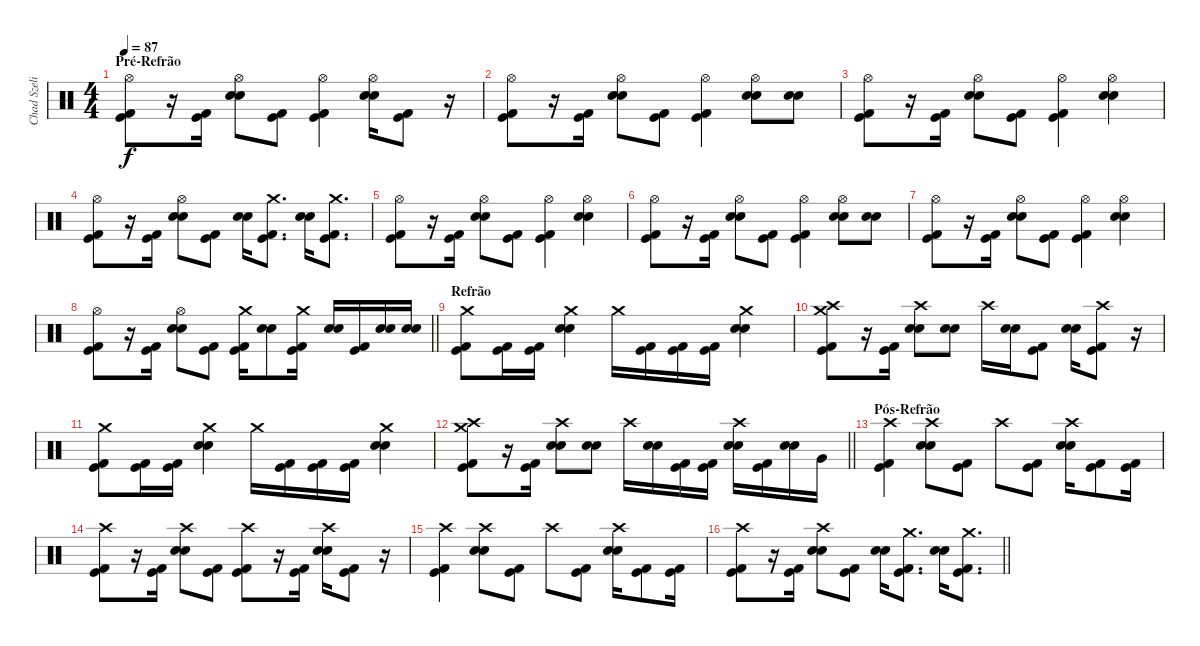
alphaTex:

\track ("Chad Szeliga" "Chad Szeli") {instrument percussion}
\staff {score}
\articulation defaults
\ts (4 4)
\section ("" "Pré-Refrão")
\tempo 87
\clef neutral
\ks c
("Kick (hit) 2" "Kick (hit)" "Hi-Hat (open)").8{dy f} r.16 ("Kick (hit) 2" "Kick (hit)").16{beam Down} ("Snare (hit) 2" "Snare (hit) 2" "Hi-Hat (open)").8 ("Kick (hit) 2" "Kick (hit)").8 ("Kick (hit) 2" "Kick (hit)" "Hi-Hat (open)").4 ("Snare (hit) 2" "Snare (hit) 2" "Hi-Hat (open)").16 ("Kick (hit) 2" "Kick (hit)").8 r.16 |
("Kick (hit) 2" "Kick (hit)" "Hi-Hat (open)").8 r.16 ("Kick (hit) 2" "Kick (hit)").16{beam Down} ("Snare (hit) 2" "Snare (hit) 2" "Hi-Hat (open)").8 ("Kick (hit) 2" "Kick (hit)").8 ("Kick (hit) 2" "Kick (hit)" "Hi-Hat (open)").4 ("Snare (hit) 2" "Snare (hit) 2" "Hi-Hat (open)").8 ("Snare (hit) 2" "Snare (hit) 2").8 |
("Kick (hit) 2" "Kick (hit)" "Hi-Hat (open)").8 r.16 ("Kick (hit) 2" "Kick (hit)").16{beam Down} ("Snare (hit) 2" "Snare (hit) 2" "Hi-Hat (open)").8 ("Kick (hit) 2" "Kick (hit)").8 ("Kick (hit) 2" "Kick (hit)" "Hi-Hat (open)").4 ("Snare (hit) 2" "Snare (hit) 2" "Hi-Hat (open)").4 |
("Kick (hit) 2" "Kick (hit)" "Hi-Hat (open)").8 r.16 ("Kick (hit) 2" "Kick (hit)").16{beam Down} ("Snare (hit) 2" "Snare (hit) 2" "Hi-Hat (open)").8 ("Kick (hit) 2" "Kick (hit)").8 ("Snare (hit) 2" "Snare (hit) 2").16 ("Crash medium (hit)" "Kick (hit) 2" "Kick (hit)").8{d} ("Snare (hit) 2" "Snare (hit) 2").16 ("Crash medium (hit)" "Kick (hit) 2" "Kick (hit)").8{d} |
("Kick (hit) 2" "Kick (hit)" "Hi-Hat (open)").8 r.16 ("Kick (hit) 2" "Kick (hit)").16{beam Down} ("Snare (hit) 2" "Snare (hit) 2" "Hi-Hat (open)").8 ("Kick (hit) 2" "Kick (hit)").8 ("Kick (hit) 2" "Kick (hit)" "Hi-Hat (open)").4 ("Snare (hit) 2" "Snare (hit) 2" "Hi-Hat (open)").4 |
("Kick (hit) 2" "Kick (hit)" "Hi-Hat (open)").8 r.16 ("Kick (hit) 2" "Kick (hit)").16{beam Down} ("Snare (hit) 2" "Snare (hit) 2" "Hi-Hat (open)").8 ("Kick (hit) 2" "Kick (hit)").8 ("Kick (hit) 2" "Kick (hit)" "Hi-Hat (open)").4 ("Snare (hit) 2" "Snare (hit) 2" "Hi-Hat (open)").8 ("Snare (hit) 2" "Snare (hit) 2").8 |
("Kick (hit) 2" "Kick (hit)" "Hi-Hat (open)").8 r.16 ("Kick (hit) 2" "Kick (hit)").16{beam Down} ("Snare (hit) 2" "Snare (hit) 2" "Hi-Hat (open)").8 ("Kick (hit) 2" "Kick (hit)").8 ("Kick (hit) 2" "Kick (hit)" "Hi-Hat (open)").4 ("Snare (hit) 2" "Snare (hit) 2" "Hi-Hat (open)").4 |
\barLineRight lightlight
("Kick (hit) 2" "Kick (hit)" "Hi-Hat (open)").8 r.16 ("Kick (hit) 2" "Kick (hit)").16{beam Down} ("Snare (hit) 2" "Snare (hit) 2" "Hi-Hat (open)").8 ("Kick (hit) 2" "Kick (hit)").8 ("Crash medium (hit)" "Kick (hit) 2" "Kick (hit)").16 ("Snare (hit) 2" "Snare (hit) 2").8 ("Crash medium (hit)" "Kick (hit) 2" "Kick (hit)").16 ("Snare (hit) 2" "Snare (hit) 2").16 ("Kick (hit) 2" "Kick (hit)").16 ("Snare (hit) 2" "Snare (hit) 2").16 ("Snare (hit) 2" "Snare (hit) 2").16 |
\section ("" "Refrão")
("Crash medium (hit)" "Kick (hit) 2" "Kick (hit)").8 ("Kick (hit) 2" "Kick (hit)").16 ("Kick (hit) 2" "Kick (hit)").16 ("Crash medium (hit)" "Snare (hit) 2" "Snare (hit) 2").4 "Crash medium (hit)".16 ("Kick (hit) 2" "Kick (hit)").16 ("Kick (hit) 2" "Kick (hit)").16 ("Kick (hit) 2" "Kick (hit)").16 ("Crash medium (hit)" "Snare (hit) 2" "Snare (hit) 2").4 |
("Crash high (hit)" "Kick (hit) 2" "Kick (hit)" "Crash medium (hit)").8 r.16 ("Kick (hit) 2" "Kick (hit)").16{beam Down} ("Crash high (hit)" "Snare (hit) 2" "Snare (hit) 2").8 ("Snare (hit) 2" "Snare (hit) 2").8 "Crash high (hit)".16 ("Snare (hit) 2" "Snare (hit) 2").16 ("Kick (hit) 2" "Kick (hit)").8 ("Snare (hit) 2" "Snare (hit) 2").16 ("Crash high (hit)" "Kick (hit) 2" "Kick (hit)").8 r.16 |
("Crash medium (hit)" "Kick (hit) 2" "Kick (hit)").8 ("Kick (hit) 2" "Kick (hit)").16 ("Kick (hit) 2" "Kick (hit)").16 ("Crash medium (hit)" "Snare (hit) 2" "Snare (hit) 2").4 "Crash medium (hit)".16 ("Kick (hit) 2" "Kick (hit)").16 ("Kick (hit) 2" "Kick (hit)").16 ("Kick (hit) 2" "Kick (hit)").16 ("Crash medium (hit)" "Snare (hit) 2" "Snare (hit) 2").4 |
\barLineRight lightlight
("Crash high (hit)" "Kick (hit) 2" "Kick (hit)" "Crash medium (hit)").8 r.16 ("Kick (hit) 2" "Kick (hit)").16{beam Down} ("Crash high (hit)" "Snare (hit) 2" "Snare (hit) 2").8 ("Snare (hit) 2" "Snare (hit) 2").8 "Crash high (hit)".16 ("Snare (hit) 2" "Snare (hit) 2").16 ("Kick (hit) 2" "Kick (hit)").16 ("Kick (hit) 2" "Kick (hit)").16 ("Crash high (hit)" "Snare (hit) 2" "Snare (hit) 2").16 ("Kick (hit) 2" "Kick (hit)").16 ("Snare (hit) 2" "Snare (hit) 2").16 "Very Low Tom (hit)".16 |
\section ("" "Pós-Refrão")
("Crash high (hit)" "Kick (hit) 2" "Kick (hit)").4 ("Crash high (hit)" "Snare (hit) 2" "Snare (hit) 2").8 ("Kick (hit) 2" "Kick (hit)").8 "Crash high (hit)".8 ("Kick (hit) 2" "Kick (hit)").8 ("Crash high (hit)" "Snare (hit) 2" "Snare (hit) 2").16 ("Kick (hit) 2" "Kick (hit)").8 ("Kick (hit) 2" "Kick (hit)").16 |
("Crash high (hit)" "Kick (hit) 2" "Kick (hit)").8 r.16 ("Kick (hit) 2" "Kick (hit)").16{beam Down} ("Crash high (hit)" "Snare (hit) 2" "Snare (hit) 2").8 ("Kick (hit) 2" "Kick (hit)").8 ("Crash high (hit)" "Kick (hit) 2" "Kick (hit)").8 r.16 ("Kick (hit) 2" "Kick (hit)").16{beam Down} ("Crash high (hit)" "Snare (hit) 2" "Snare (hit) 2").16 ("Kick (hit) 2" "Kick (hit)").8 r.16 |
("Crash high (hit)" "Kick (hit) 2" "Kick (hit)").4 ("Crash high (hit)" "Snare (hit) 2" "Snare (hit) 2").8 ("Kick (hit) 2" "Kick (hit)").8 "Crash high (hit)".8 ("Kick (hit) 2" "Kick (hit)").8 ("Crash high (hit)" "Snare (hit) 2" "Snare (hit) 2").16 ("Kick (hit) 2" "Kick (hit)").8 ("Kick (hit) 2" "Kick (hit)").16 |
\barLineRight lightlight
("Crash high (hit)" "Kick (hit) 2" "Kick (hit)").8 r.16 ("Kick (hit) 2" "Kick (hit)").16{beam Down} ("Crash high (hit)" "Snare (hit) 2" "Snare (hit) 2").8 ("Kick (hit) 2" "Kick (hit)").8 ("Snare (hit) 2" "Snare (hit) 2").16 ("Crash medium (hit)" "Kick (hit) 2" "Kick (hit)").8{d} ("Snare (hit) 2" "Snare (hit) 2").16 ("Crash medium (hit)" "Kick (hit) 2" "Kick (hit)").8{d}
